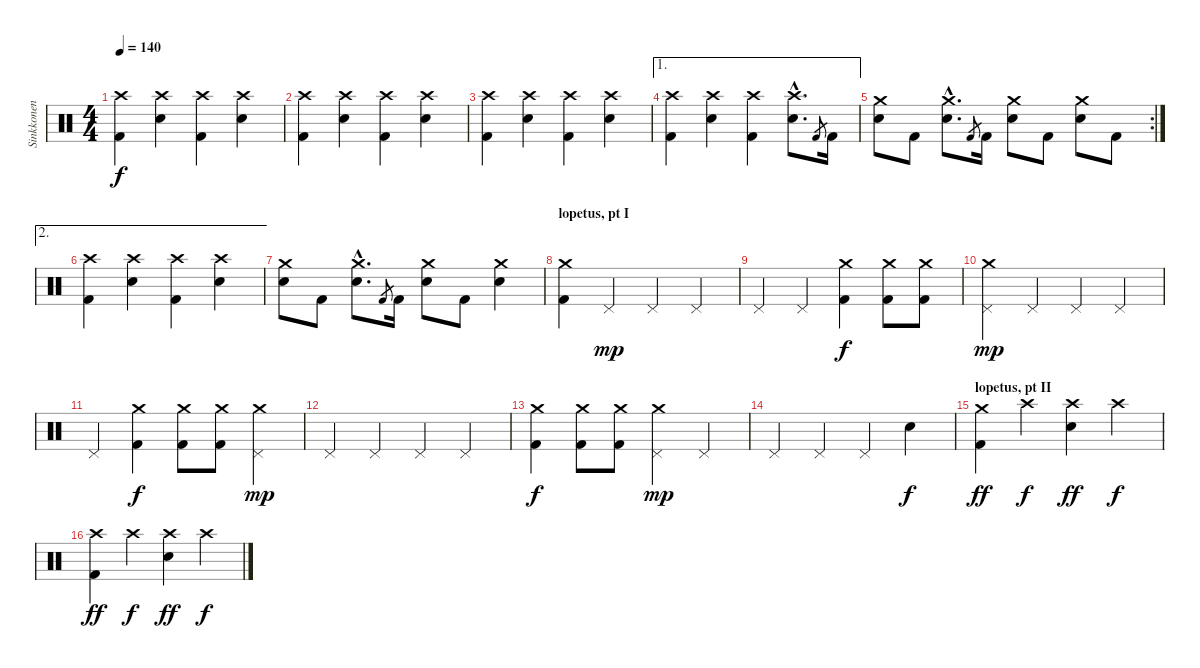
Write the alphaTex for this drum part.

\track ("Sinkkonen" "Sinkkonen") {instrument percussion}
\staff {score}
\articulation defaults
\ts (4 4)
\tempo 140
\clef neutral
\ks c
("Kick (hit) 2" "Crash high (hit)").4{dy f} ("Crash high (hit)" "Snare (hit) 2").4 ("Kick (hit) 2" "Crash high (hit)").4 ("Crash high (hit)" "Snare (hit) 2").4 |
("Kick (hit) 2" "Crash high (hit)").4 ("Crash high (hit)" "Snare (hit) 2").4 ("Kick (hit) 2" "Crash high (hit)").4 ("Crash high (hit)" "Snare (hit) 2").4 |
("Kick (hit) 2" "Crash high (hit)").4 ("Crash high (hit)" "Snare (hit) 2").4 ("Kick (hit) 2" "Crash high (hit)").4 ("Crash high (hit)" "Snare (hit) 2").4 |
\ae 1
("Kick (hit) 2" "Crash high (hit)").4 ("Crash high (hit)" "Snare (hit) 2").4 ("Kick (hit) 2" "Crash high (hit)").4 ("Crash high (hit)"{hac} "Snare (hit) 2"{hac}).8{d} "Kick (hit) 2".8{gr} "Kick (hit) 2".16 |
\rc 2
("Crash medium (hit)" "Snare (hit) 2").8 "Kick (hit) 2".8 ("Crash medium (hit)"{hac} "Snare (hit) 2"{hac}).8{d} "Kick (hit) 2".8{gr} "Kick (hit) 2".16 ("Crash medium (hit)" "Snare (hit) 2").8 "Kick (hit) 2".8 ("Crash medium (hit)" "Snare (hit) 2").8 "Kick (hit) 2".8 |
\ae 2
("Kick (hit) 2" "Crash high (hit)").4 ("Crash high (hit)" "Snare (hit) 2").4 ("Kick (hit) 2" "Crash high (hit)").4 ("Crash high (hit)" "Snare (hit) 2").4 |
("Crash medium (hit)" "Snare (hit) 2").8 "Kick (hit) 2".8 ("Crash medium (hit)"{hac} "Snare (hit) 2"{hac}).8{d} "Kick (hit) 2".8{gr} "Kick (hit) 2".16 ("Crash medium (hit)" "Snare (hit) 2").8 "Kick (hit) 2".8 ("Crash medium (hit)" "Snare (hit) 2").4 |
\section ("" "lopetus, pt I")
("Kick (hit) 2" "Crash medium (hit)").4 "Pedal Hi-Hat (hit)".4{dy mp} "Pedal Hi-Hat (hit)".4 "Pedal Hi-Hat (hit)".4 |
"Pedal Hi-Hat (hit)".4 "Pedal Hi-Hat (hit)".4 ("Kick (hit) 2" "Crash medium (hit)").4{dy f} ("Kick (hit) 2" "Crash medium (hit)").8 ("Kick (hit) 2" "Crash medium (hit)").8 |
("Crash medium (hit)" "Pedal Hi-Hat (hit)").4{dy mp} "Pedal Hi-Hat (hit)".4 "Pedal Hi-Hat (hit)".4 "Pedal Hi-Hat (hit)".4 |
"Pedal Hi-Hat (hit)".4 ("Kick (hit) 2" "Crash medium (hit)").4{dy f} ("Kick (hit) 2" "Crash medium (hit)").8 ("Kick (hit) 2" "Crash medium (hit)").8 ("Crash medium (hit)" "Pedal Hi-Hat (hit)").4{dy mp} |
"Pedal Hi-Hat (hit)".4 "Pedal Hi-Hat (hit)".4 "Pedal Hi-Hat (hit)".4 "Pedal Hi-Hat (hit)".4 |
("Kick (hit) 2" "Crash medium (hit)").4{dy f} ("Kick (hit) 2" "Crash medium (hit)").8 ("Kick (hit) 2" "Crash medium (hit)").8 ("Crash medium (hit)" "Pedal Hi-Hat (hit)").4{dy mp} "Pedal Hi-Hat (hit)".4 |
"Pedal Hi-Hat (hit)".4 "Pedal Hi-Hat (hit)".4 "Pedal Hi-Hat (hit)".4 "Snare (hit) 2".4{dy f} |
\section ("" "lopetus, pt II")
("Kick (hit) 2" "Crash medium (hit)").4{dy ff} "Crash high (hit)".4{dy f} ("Crash high (hit)" "Snare (hit) 2").4{dy ff} "Crash high (hit)".4{dy f} |
("Kick (hit) 2" "Crash high (hit)").4{dy ff} "Crash high (hit)".4{dy f} ("Crash high (hit)" "Snare (hit) 2").4{dy ff} "Crash high (hit)".4{dy f}
